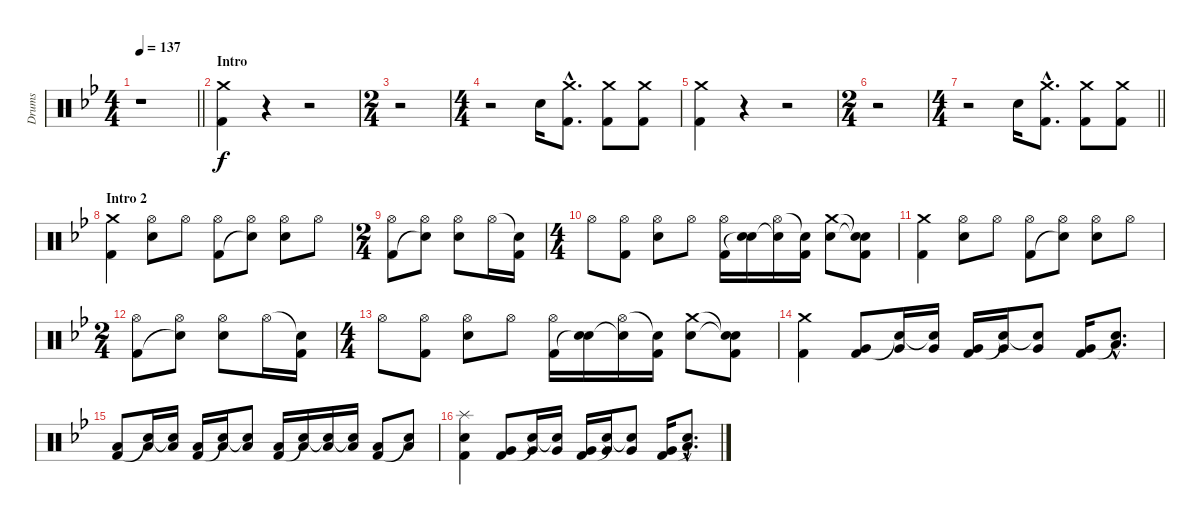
\track ("Drums" "Drums") {instrument percussion}
\staff {score}
\articulation defaults
\ts (4 4)
\tempo 137
\tempo 140
\tempo 137
\clef neutral
\barLineRight lightlight
\ks bb
r.1{dy f} |
\section ("" "Intro")
("Crash medium (hit)" "Kick (hit) 2").4 r.4 r.2 |
\ts (2 4)
r.2 |
\ts (4 4)
r.2 "Electric Snare (hit)".16 ("Crash medium (hit)"{hac} "Kick (hit) 2"{hac}).8{d} ("Crash medium (hit)" "Kick (hit) 2").8 ("Crash medium (hit)" "Kick (hit) 2").8 |
("Crash medium (hit)" "Kick (hit) 2").4 r.4 r.2 |
\ts (2 4)
r.2 |
\ts (4 4)
\barLineRight lightlight
r.2 "Electric Snare (hit)".16 ("Crash medium (hit)"{hac} "Kick (hit) 2"{hac}).8{d} ("Crash medium (hit)" "Kick (hit) 2").8 ("Crash medium (hit)" "Kick (hit) 2").8 |
\section ("" "Intro 2")
("Crash medium (hit)" "Kick (hit) 2").4 ("Hi-Hat (open)" "Electric Snare (hit)").8 "Hi-Hat (open)".8 ("Hi-Hat (open)" "Kick (hit) 2").8 ("Hi-Hat (open)" "Snare (hit)"{t}).8 ("Hi-Hat (open)" "Electric Snare (hit)").8 "Hi-Hat (open)".8 |
\ts (2 4)
("Hi-Hat (open)" "Kick (hit) 2").8 ("Hi-Hat (open)" "Snare (hit)"{t}).8 ("Hi-Hat (open)" "Electric Snare (hit)").8 "Hi-Hat (open)".16 ("Snare (hit)"{t} "Kick (hit) 2").16 |
\ts (4 4)
"Hi-Hat (open)".8 ("Hi-Hat (open)" "Kick (hit) 2").8 ("Hi-Hat (open)" "Electric Snare (hit)").8 "Hi-Hat (open)".8 ("Hi-Hat (open)" "Kick (hit) 2").16 ("Electric Snare (hit)" "Snare (hit)"{t}).16 ("Hi-Hat (open)" "Snare (hit)"{t}).16 ("Snare (hit)"{t} "Kick (hit) 2").16 ("Crash medium (hit)" "Electric Snare (hit)").8 ("Snare (hit)"{t} "Snare (hit)"{t} "Kick (hit) 2").8 |
("Crash medium (hit)" "Kick (hit) 2").4 ("Hi-Hat (open)" "Electric Snare (hit)").8 "Hi-Hat (open)".8 ("Hi-Hat (open)" "Kick (hit) 2").8 ("Hi-Hat (open)" "Snare (hit)"{t}).8 ("Hi-Hat (open)" "Electric Snare (hit)").8 "Hi-Hat (open)".8 |
\ts (2 4)
("Hi-Hat (open)" "Kick (hit) 2").8 ("Hi-Hat (open)" "Snare (hit)"{t}).8 ("Hi-Hat (open)" "Electric Snare (hit)").8 "Hi-Hat (open)".16 ("Snare (hit)"{t} "Kick (hit) 2").16 |
\ts (4 4)
"Hi-Hat (open)".8 ("Hi-Hat (open)" "Kick (hit) 2").8 ("Hi-Hat (open)" "Electric Snare (hit)").8 "Hi-Hat (open)".8 ("Hi-Hat (open)" "Kick (hit) 2").16 ("Electric Snare (hit)" "Snare (hit)"{t}).16 ("Hi-Hat (open)" "Snare (hit)"{t}).16 ("Snare (hit)"{t} "Kick (hit) 2").16 ("Crash medium (hit)" "Electric Snare (hit)").8 ("Snare (hit)"{t} "Snare (hit)"{t} "Kick (hit) 2").8 |
("Crash medium (hit)" "Kick (hit) 2").4 ("Very Low Tom (hit)" "Kick (hit) 2").8 ("Very Low Tom (hit)" "Snare (hit)"{t}).16 ("Very Low Tom (hit)" "Snare (hit)"{t}).16 ("Very Low Tom (hit)" "Kick (hit) 2").16 ("Very Low Tom (hit)" "Snare (hit)"{t}).16 ("Very Low Tom (hit)" "Snare (hit)"{t}).8 ("Very Low Tom (hit)" "Kick (hit) 2").16 ("Low Floor Tom (hit)"{hac} "Snare (hit)"{hac t}).8{d} |
("Low Floor Tom (hit)" "Kick (hit) 2").8 ("Low Floor Tom (hit)" "Snare (hit)"{t}).16 ("Low Floor Tom (hit)" "Snare (hit)"{t}).16 ("Low Floor Tom (hit)" "Kick (hit) 2").16 ("Low Floor Tom (hit)" "Snare (hit)"{t}).16 ("Low Floor Tom (hit)" "Snare (hit)"{t}).8 ("Low Floor Tom (hit)" "Kick (hit) 2").16 ("Low Floor Tom (hit)" "Snare (hit)"{t}).16 ("Low Floor Tom (hit)" "Snare (hit)"{t}).16 ("Low Floor Tom (hit)" "Snare (hit)"{t}).16 ("Low Floor Tom (hit)" "Kick (hit) 2").8 ("Low Floor Tom (hit)" "Snare (hit)"{t}).8 |
("Splash (hit)" "Electric Snare (hit)" "Kick (hit) 2").4 ("Very Low Tom (hit)" "Kick (hit) 2").8 ("Very Low Tom (hit)" "Snare (hit)"{t}).16 ("Very Low Tom (hit)" "Snare (hit)"{t}).16 ("Very Low Tom (hit)" "Kick (hit) 2").16 ("Very Low Tom (hit)" "Snare (hit)"{t}).16 ("Very Low Tom (hit)" "Snare (hit)"{t}).8 ("Very Low Tom (hit)" "Kick (hit) 2").16 ("Low Floor Tom (hit)"{hac} "Snare (hit)"{hac t}).8{d}
